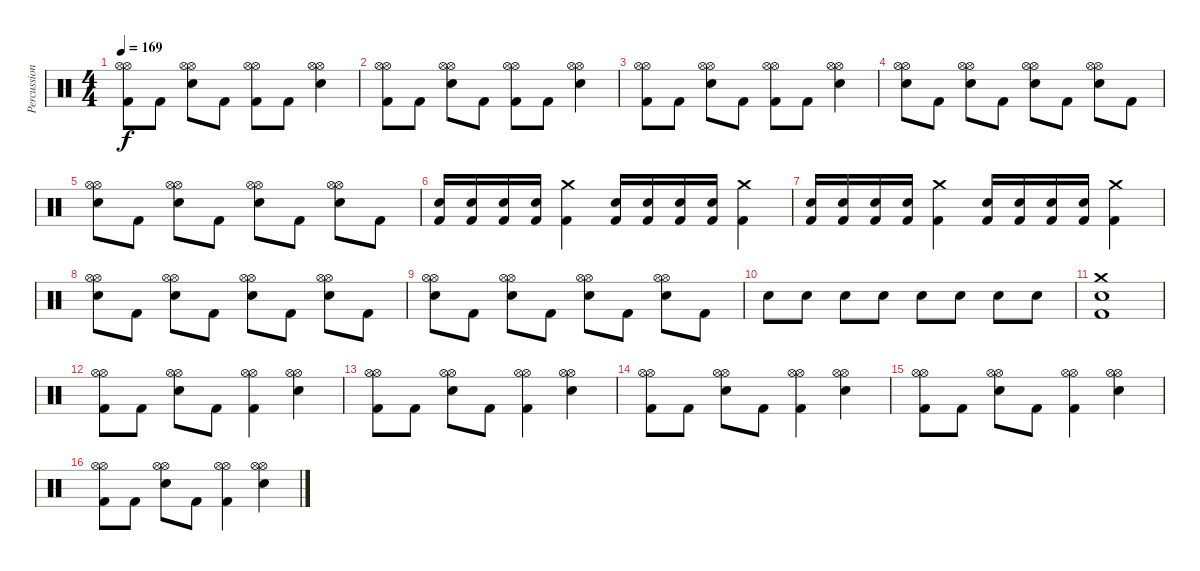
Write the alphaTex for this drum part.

\track ("Percussion" "Percussion") {instrument percussion}
\staff {score}
\articulation defaults
\ts (4 4)
\tempo 169
\clef neutral
\ks c
("Hi-Hat (open)" "Hi-Hat (open)" "Kick (hit) 2").8{dy f} "Kick (hit) 2".8 ("Hi-Hat (open)" "Hi-Hat (open)" "Snare (hit) 2").8 "Kick (hit) 2".8 ("Hi-Hat (open)" "Hi-Hat (open)" "Kick (hit) 2").8 "Kick (hit) 2".8 ("Hi-Hat (open)" "Hi-Hat (open)" "Snare (hit) 2").4 |
("Hi-Hat (open)" "Hi-Hat (open)" "Kick (hit) 2").8 "Kick (hit) 2".8 ("Hi-Hat (open)" "Hi-Hat (open)" "Snare (hit) 2").8 "Kick (hit) 2".8 ("Hi-Hat (open)" "Hi-Hat (open)" "Kick (hit) 2").8 "Kick (hit) 2".8 ("Hi-Hat (open)" "Hi-Hat (open)" "Snare (hit) 2").4 |
("Hi-Hat (open)" "Hi-Hat (open)" "Kick (hit) 2").8 "Kick (hit) 2".8 ("Hi-Hat (open)" "Hi-Hat (open)" "Snare (hit) 2").8 "Kick (hit) 2".8 ("Hi-Hat (open)" "Hi-Hat (open)" "Kick (hit) 2").8 "Kick (hit) 2".8 ("Hi-Hat (open)" "Hi-Hat (open)" "Snare (hit) 2").4 |
("Hi-Hat (open)" "Hi-Hat (open)" "Snare (hit) 2").8 "Kick (hit) 2".8 ("Hi-Hat (open)" "Hi-Hat (open)" "Snare (hit) 2").8 "Kick (hit) 2".8 ("Hi-Hat (open)" "Hi-Hat (open)" "Snare (hit) 2").8 "Kick (hit) 2".8 ("Hi-Hat (open)" "Hi-Hat (open)" "Snare (hit) 2").8 "Kick (hit) 2".8 |
("Hi-Hat (open)" "Hi-Hat (open)" "Snare (hit) 2").8 "Kick (hit) 2".8 ("Hi-Hat (open)" "Hi-Hat (open)" "Snare (hit) 2").8 "Kick (hit) 2".8 ("Hi-Hat (open)" "Hi-Hat (open)" "Snare (hit) 2").8 "Kick (hit) 2".8 ("Hi-Hat (open)" "Hi-Hat (open)" "Snare (hit) 2").8 "Kick (hit) 2".8 |
("Snare (hit) 2" "Kick (hit) 2").16 ("Snare (hit) 2" "Kick (hit) 2").16 ("Snare (hit) 2" "Kick (hit) 2").16 ("Snare (hit) 2" "Kick (hit) 2").16 ("Crash medium (hit)" "Kick (hit) 2").4 ("Snare (hit) 2" "Kick (hit) 2").16 ("Snare (hit) 2" "Kick (hit) 2").16 ("Snare (hit) 2" "Kick (hit) 2").16 ("Snare (hit) 2" "Kick (hit) 2").16 ("Crash medium (hit)" "Kick (hit) 2").4 |
("Snare (hit) 2" "Kick (hit) 2").16 ("Snare (hit) 2" "Kick (hit) 2").16 ("Snare (hit) 2" "Kick (hit) 2").16 ("Snare (hit) 2" "Kick (hit) 2").16 ("Crash medium (hit)" "Kick (hit) 2").4 ("Snare (hit) 2" "Kick (hit) 2").16 ("Snare (hit) 2" "Kick (hit) 2").16 ("Snare (hit) 2" "Kick (hit) 2").16 ("Snare (hit) 2" "Kick (hit) 2").16 ("Crash medium (hit)" "Kick (hit) 2").4 |
("Hi-Hat (open)" "Hi-Hat (open)" "Snare (hit) 2").8 "Kick (hit) 2".8 ("Hi-Hat (open)" "Hi-Hat (open)" "Snare (hit) 2").8 "Kick (hit) 2".8 ("Hi-Hat (open)" "Hi-Hat (open)" "Snare (hit) 2").8 "Kick (hit) 2".8 ("Hi-Hat (open)" "Hi-Hat (open)" "Snare (hit) 2").8 "Kick (hit) 2".8 |
("Hi-Hat (open)" "Hi-Hat (open)" "Snare (hit) 2").8 "Kick (hit) 2".8 ("Hi-Hat (open)" "Hi-Hat (open)" "Snare (hit) 2").8 "Kick (hit) 2".8 ("Hi-Hat (open)" "Hi-Hat (open)" "Snare (hit) 2").8 "Kick (hit) 2".8 ("Hi-Hat (open)" "Hi-Hat (open)" "Snare (hit) 2").8 "Kick (hit) 2".8 |
"Snare (hit) 2".8 "Snare (hit) 2".8 "Snare (hit) 2".8 "Snare (hit) 2".8 "Snare (hit) 2".8 "Snare (hit) 2".8 "Snare (hit) 2".8 "Snare (hit) 2".8 |
("Crash medium (hit)" "Snare (hit) 2" "Kick (hit) 2").1 |
("Hi-Hat (open)" "Hi-Hat (open)" "Kick (hit) 2").8 "Kick (hit) 2".8 ("Hi-Hat (open)" "Hi-Hat (open)" "Snare (hit) 2").8 "Kick (hit) 2".8 ("Hi-Hat (open)" "Hi-Hat (open)" "Kick (hit) 2").4 ("Hi-Hat (open)" "Hi-Hat (open)" "Snare (hit) 2").4 |
("Hi-Hat (open)" "Hi-Hat (open)" "Kick (hit) 2").8 "Kick (hit) 2".8 ("Hi-Hat (open)" "Hi-Hat (open)" "Snare (hit) 2").8 "Kick (hit) 2".8 ("Hi-Hat (open)" "Hi-Hat (open)" "Kick (hit) 2").4 ("Hi-Hat (open)" "Hi-Hat (open)" "Snare (hit) 2").4 |
("Hi-Hat (open)" "Hi-Hat (open)" "Kick (hit) 2").8 "Kick (hit) 2".8 ("Hi-Hat (open)" "Hi-Hat (open)" "Snare (hit) 2").8 "Kick (hit) 2".8 ("Hi-Hat (open)" "Hi-Hat (open)" "Kick (hit) 2").4 ("Hi-Hat (open)" "Hi-Hat (open)" "Snare (hit) 2").4 |
("Hi-Hat (open)" "Hi-Hat (open)" "Kick (hit) 2").8 "Kick (hit) 2".8 ("Hi-Hat (open)" "Hi-Hat (open)" "Snare (hit) 2").8 "Kick (hit) 2".8 ("Hi-Hat (open)" "Hi-Hat (open)" "Kick (hit) 2").4 ("Hi-Hat (open)" "Hi-Hat (open)" "Snare (hit) 2").4 |
("Hi-Hat (open)" "Hi-Hat (open)" "Kick (hit) 2").8 "Kick (hit) 2".8 ("Hi-Hat (open)" "Hi-Hat (open)" "Snare (hit) 2").8 "Kick (hit) 2".8 ("Hi-Hat (open)" "Hi-Hat (open)" "Kick (hit) 2").4 ("Hi-Hat (open)" "Hi-Hat (open)" "Snare (hit) 2").4
